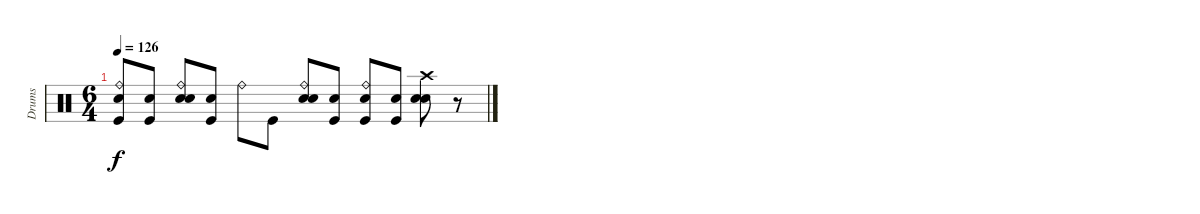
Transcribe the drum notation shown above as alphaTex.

\track ("Drums" "Drums") {instrument percussion}
\staff {score}
\articulation defaults
\ts (6 4)
\tempo 126
\clef neutral
\ks c
("Snare (hit)" "Ride (bell)" "Kick (hit)").8{dy f} ("Snare (hit)" "Kick (hit)").8 ("Snare (hit)" "Electric Snare (hit)" "Ride (bell)").8 ("Snare (hit)" "Kick (hit)").8 "Ride (bell)".8 "Kick (hit)".8 ("Snare (hit)" "Electric Snare (hit)" "Ride (bell)").8 ("Snare (hit)" "Kick (hit)").8 ("Snare (hit)" "Kick (hit)" "Ride (bell)").8 ("Snare (hit)" "Kick (hit)").8 ("Snare (hit)" "Crash high (hit)" "Electric Snare (hit)").8 r.8
